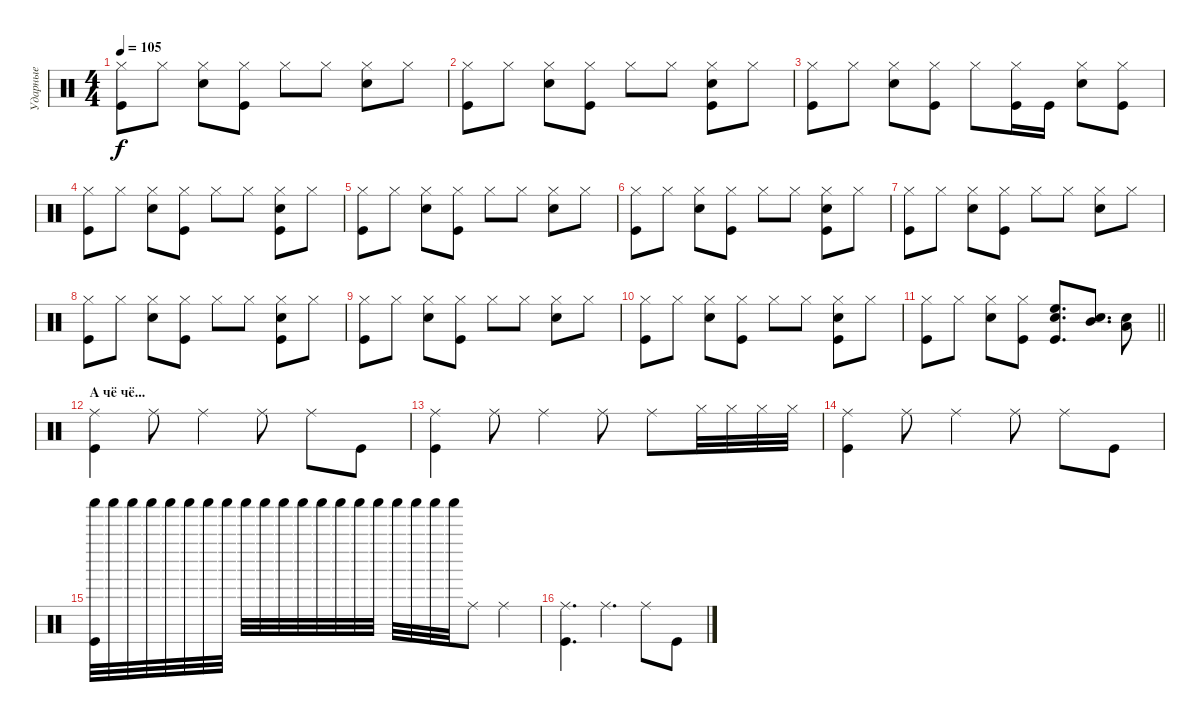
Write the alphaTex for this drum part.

\track ("Ударные" "Ударные") {instrument percussion}
\staff {score}
\articulation defaults
\ts (4 4)
\tempo 105
\clef neutral
\ks c
("Kick (hit)" "Hi-Hat (closed)").8{dy f} "Hi-Hat (closed)".8 ("Snare (hit) 2" "Hi-Hat (closed)").8 ("Hi-Hat (closed)" "Kick (hit)").8 "Hi-Hat (closed)".8 "Hi-Hat (closed)".8 ("Hi-Hat (closed)" "Snare (hit) 2").8 "Hi-Hat (closed)".8 |
("Kick (hit)" "Hi-Hat (closed)").8 "Hi-Hat (closed)".8 ("Snare (hit) 2" "Hi-Hat (closed)").8 ("Hi-Hat (closed)" "Kick (hit)").8 "Hi-Hat (closed)".8 "Hi-Hat (closed)".8 ("Hi-Hat (closed)" "Kick (hit)" "Snare (hit) 2").8 "Hi-Hat (closed)".8 |
("Kick (hit)" "Hi-Hat (closed)").8 "Hi-Hat (closed)".8 ("Snare (hit) 2" "Hi-Hat (closed)").8 ("Hi-Hat (closed)" "Kick (hit)").8 "Hi-Hat (closed)".8 ("Kick (hit)" "Hi-Hat (closed)").16 "Kick (hit)".16 ("Hi-Hat (closed)" "Snare (hit) 2").8 ("Hi-Hat (closed)" "Kick (hit)").8 |
("Kick (hit)" "Hi-Hat (closed)").8 "Hi-Hat (closed)".8 ("Snare (hit) 2" "Hi-Hat (closed)").8 ("Hi-Hat (closed)" "Kick (hit)").8 "Hi-Hat (closed)".8 "Hi-Hat (closed)".8 ("Hi-Hat (closed)" "Kick (hit)" "Snare (hit) 2").8 "Hi-Hat (closed)".8 |
("Kick (hit)" "Hi-Hat (closed)").8 "Hi-Hat (closed)".8 ("Snare (hit) 2" "Hi-Hat (closed)").8 ("Hi-Hat (closed)" "Kick (hit)").8 "Hi-Hat (closed)".8 "Hi-Hat (closed)".8 ("Hi-Hat (closed)" "Snare (hit) 2").8 "Hi-Hat (closed)".8 |
("Kick (hit)" "Hi-Hat (closed)").8 "Hi-Hat (closed)".8 ("Snare (hit) 2" "Hi-Hat (closed)").8 ("Hi-Hat (closed)" "Kick (hit)").8 "Hi-Hat (closed)".8 "Hi-Hat (closed)".8 ("Hi-Hat (closed)" "Kick (hit)" "Snare (hit) 2").8 "Hi-Hat (closed)".8 |
("Kick (hit)" "Hi-Hat (closed)").8 "Hi-Hat (closed)".8 ("Snare (hit) 2" "Hi-Hat (closed)").8 ("Hi-Hat (closed)" "Kick (hit)").8 "Hi-Hat (closed)".8 "Hi-Hat (closed)".8 ("Hi-Hat (closed)" "Snare (hit) 2").8 "Hi-Hat (closed)".8 |
("Kick (hit)" "Hi-Hat (closed)").8 "Hi-Hat (closed)".8 ("Snare (hit) 2" "Hi-Hat (closed)").8 ("Hi-Hat (closed)" "Kick (hit)").8 "Hi-Hat (closed)".8 "Hi-Hat (closed)".8 ("Hi-Hat (closed)" "Kick (hit)" "Snare (hit) 2").8 "Hi-Hat (closed)".8 |
("Kick (hit)" "Hi-Hat (closed)").8 "Hi-Hat (closed)".8 ("Snare (hit) 2" "Hi-Hat (closed)").8 ("Hi-Hat (closed)" "Kick (hit)").8 "Hi-Hat (closed)".8 "Hi-Hat (closed)".8 ("Hi-Hat (closed)" "Snare (hit) 2").8 "Hi-Hat (closed)".8 |
("Kick (hit)" "Hi-Hat (closed)").8 "Hi-Hat (closed)".8 ("Snare (hit) 2" "Hi-Hat (closed)").8 ("Hi-Hat (closed)" "Kick (hit)").8 "Hi-Hat (closed)".8 "Hi-Hat (closed)".8 ("Hi-Hat (closed)" "Kick (hit)" "Snare (hit) 2").8 "Hi-Hat (closed)".8 |
\barLineRight lightlight
("Kick (hit)" "Hi-Hat (closed)").8 "Hi-Hat (closed)".8 ("Snare (hit) 2" "Hi-Hat (closed)").8 ("Hi-Hat (closed)" "Kick (hit)").8 ("Kick (hit)" "Snare (hit) 2" "High Floor Tom (hit)").8{d} ("Snare (hit) 2" "Mid Tom (hit)").8{d} ("Low Tom (hit)" "Snare (hit) 2").8 |
\section ("" "А чё чё...")
("Ride (middle)" "Kick (hit)").4 "Ride (middle)".8 "Ride (middle)".4 "Ride (middle)".8 "Ride (middle)".8 "Kick (hit)".8 |
("Ride (middle)" "Kick (hit)").4 "Ride (middle)".8 "Ride (middle)".4 "Ride (middle)".8 "Ride (middle)".8 "Hi-Hat (closed)".32 "Hi-Hat (closed)".32 "Hi-Hat (closed)".32 "Hi-Hat (closed)".32 |
("Ride (middle)" "Kick (hit)").4 "Ride (middle)".8 "Ride (middle)".4 "Ride (middle)".8 "Ride (middle)".8 "Kick (hit)".8 |
("Kick (hit)" "Shaker (hit)").32 "Shaker (hit)".32 "Shaker (hit)".32 "Shaker (hit)".32 "Shaker (hit)".32 "Shaker (hit)".32 "Shaker (hit)".32 "Shaker (hit)".32 "Shaker (hit)".32 "Shaker (hit)".32 "Shaker (hit)".32 "Shaker (hit)".32 "Shaker (hit)".32 "Shaker (hit)".32 "Shaker (hit)".32 "Shaker (hit)".32 "Shaker (hit)".32 "Shaker (hit)".32 "Shaker (hit)".32 "Shaker (hit)".32 "Ride (middle)".8 "Ride (middle)".4 |
("Ride (middle)" "Kick (hit)").4{d} "Ride (middle)".4{d} "Ride (middle)".8 "Kick (hit)".8
